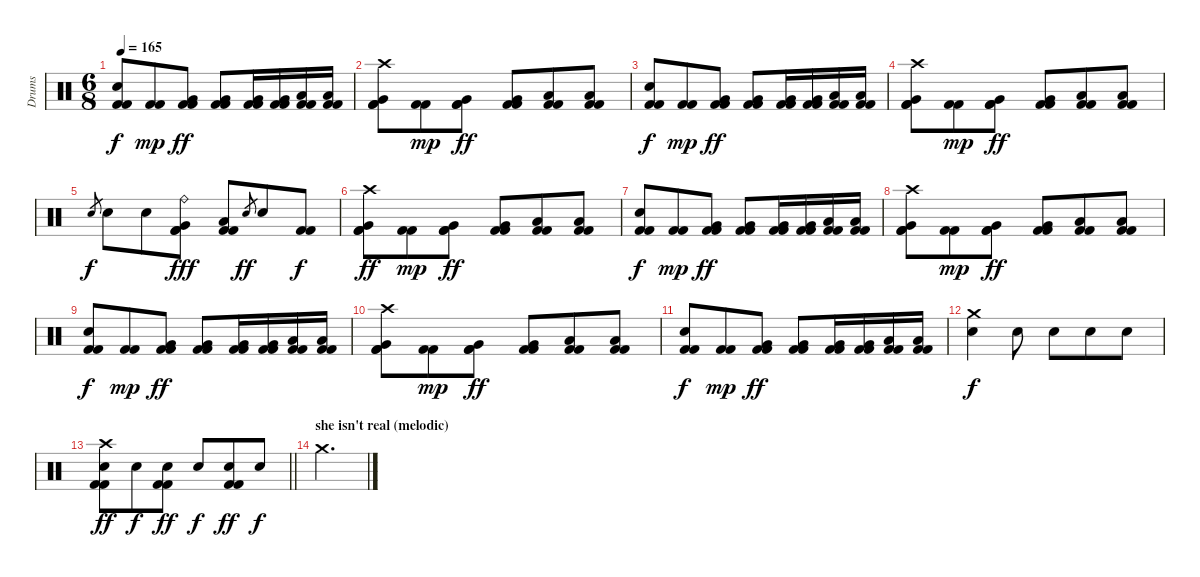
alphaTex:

\track ("Drums" "Drums") {instrument percussion}
\staff {score}
\articulation defaults
\ts (6 8)
\tempo 165
\clef neutral
\ks c
("Electric Snare (hit)" "Kick (hit) 2" "Kick (hit) 2").8{dy f} ("Kick (hit) 2" "Kick (hit) 2").8{dy mp} ("Very Low Tom (hit)" "Kick (hit) 2" "Kick (hit) 2").8{dy ff} ("Very Low Tom (hit)" "Kick (hit) 2" "Kick (hit) 2").8 ("Very Low Tom (hit)" "Kick (hit) 2" "Kick (hit) 2").16 ("Very Low Tom (hit)" "Kick (hit) 2" "Kick (hit) 2").16 ("Low Floor Tom (hit)" "Kick (hit) 2" "Kick (hit) 2").16 ("Low Floor Tom (hit)" "Kick (hit) 2" "Kick (hit) 2").16 |
("Crash high (hit)" "Very Low Tom (hit)" "Kick (hit) 2" "Kick (hit) 2").8 ("Kick (hit) 2" "Kick (hit) 2").8{dy mp} ("Very Low Tom (hit)" "Kick (hit) 2" "Kick (hit) 2").8{dy ff} ("Very Low Tom (hit)" "Kick (hit) 2" "Kick (hit) 2").8 ("Low Floor Tom (hit)" "Kick (hit) 2" "Kick (hit) 2").8 ("Low Floor Tom (hit)" "Kick (hit) 2" "Kick (hit) 2").8 |
("Electric Snare (hit)" "Kick (hit) 2" "Kick (hit) 2").8{dy f} ("Kick (hit) 2" "Kick (hit) 2").8{dy mp} ("Very Low Tom (hit)" "Kick (hit) 2" "Kick (hit) 2").8{dy ff} ("Very Low Tom (hit)" "Kick (hit) 2" "Kick (hit) 2").8 ("Very Low Tom (hit)" "Kick (hit) 2" "Kick (hit) 2").16 ("Very Low Tom (hit)" "Kick (hit) 2" "Kick (hit) 2").16 ("Low Floor Tom (hit)" "Kick (hit) 2" "Kick (hit) 2").16 ("Low Floor Tom (hit)" "Kick (hit) 2" "Kick (hit) 2").16 |
("Crash high (hit)" "Very Low Tom (hit)" "Kick (hit) 2" "Kick (hit) 2").8 ("Kick (hit) 2" "Kick (hit) 2").8{dy mp} ("Very Low Tom (hit)" "Kick (hit) 2" "Kick (hit) 2").8{dy ff} ("Very Low Tom (hit)" "Kick (hit) 2" "Kick (hit) 2").8 ("Low Floor Tom (hit)" "Kick (hit) 2" "Kick (hit) 2").8 ("Low Floor Tom (hit)" "Kick (hit) 2" "Kick (hit) 2").8 |
"Electric Snare (hit)".8{gr dy f} "Electric Snare (hit)".8 "Electric Snare (hit)".8 ("Ride (bell)" "Very Low Tom (hit)" "Kick (hit) 2" "Kick (hit) 2").8{dy fff} ("Low Floor Tom (hit)" "Kick (hit) 2" "Kick (hit) 2").8 "Electric Snare (hit)".8{gr dy ff} "Electric Snare (hit)".8 ("Kick (hit) 2" "Kick (hit) 2").8{dy f} |
("Crash high (hit)" "Very Low Tom (hit)" "Kick (hit) 2" "Kick (hit) 2").8{dy ff} ("Kick (hit) 2" "Kick (hit) 2").8{dy mp} ("Very Low Tom (hit)" "Kick (hit) 2" "Kick (hit) 2").8{dy ff} ("Very Low Tom (hit)" "Kick (hit) 2" "Kick (hit) 2").8 ("Low Floor Tom (hit)" "Kick (hit) 2" "Kick (hit) 2").8 ("Low Floor Tom (hit)" "Kick (hit) 2" "Kick (hit) 2").8 |
("Electric Snare (hit)" "Kick (hit) 2" "Kick (hit) 2").8{dy f} ("Kick (hit) 2" "Kick (hit) 2").8{dy mp} ("Very Low Tom (hit)" "Kick (hit) 2" "Kick (hit) 2").8{dy ff} ("Very Low Tom (hit)" "Kick (hit) 2" "Kick (hit) 2").8 ("Very Low Tom (hit)" "Kick (hit) 2" "Kick (hit) 2").16 ("Very Low Tom (hit)" "Kick (hit) 2" "Kick (hit) 2").16 ("Low Floor Tom (hit)" "Kick (hit) 2" "Kick (hit) 2").16 ("Low Floor Tom (hit)" "Kick (hit) 2" "Kick (hit) 2").16 |
("Crash high (hit)" "Very Low Tom (hit)" "Kick (hit) 2" "Kick (hit) 2").8 ("Kick (hit) 2" "Kick (hit) 2").8{dy mp} ("Very Low Tom (hit)" "Kick (hit) 2" "Kick (hit) 2").8{dy ff} ("Very Low Tom (hit)" "Kick (hit) 2" "Kick (hit) 2").8 ("Low Floor Tom (hit)" "Kick (hit) 2" "Kick (hit) 2").8 ("Low Floor Tom (hit)" "Kick (hit) 2" "Kick (hit) 2").8 |
("Electric Snare (hit)" "Kick (hit) 2" "Kick (hit) 2").8{dy f} ("Kick (hit) 2" "Kick (hit) 2").8{dy mp} ("Very Low Tom (hit)" "Kick (hit) 2" "Kick (hit) 2").8{dy ff} ("Very Low Tom (hit)" "Kick (hit) 2" "Kick (hit) 2").8 ("Very Low Tom (hit)" "Kick (hit) 2" "Kick (hit) 2").16 ("Very Low Tom (hit)" "Kick (hit) 2" "Kick (hit) 2").16 ("Low Floor Tom (hit)" "Kick (hit) 2" "Kick (hit) 2").16 ("Low Floor Tom (hit)" "Kick (hit) 2" "Kick (hit) 2").16 |
("Crash high (hit)" "Very Low Tom (hit)" "Kick (hit) 2" "Kick (hit) 2").8 ("Kick (hit) 2" "Kick (hit) 2").8{dy mp} ("Very Low Tom (hit)" "Kick (hit) 2" "Kick (hit) 2").8{dy ff} ("Very Low Tom (hit)" "Kick (hit) 2" "Kick (hit) 2").8 ("Low Floor Tom (hit)" "Kick (hit) 2" "Kick (hit) 2").8 ("Low Floor Tom (hit)" "Kick (hit) 2" "Kick (hit) 2").8 |
("Electric Snare (hit)" "Kick (hit) 2" "Kick (hit) 2").8{dy f} ("Kick (hit) 2" "Kick (hit) 2").8{dy mp} ("Very Low Tom (hit)" "Kick (hit) 2" "Kick (hit) 2").8{dy ff} ("Very Low Tom (hit)" "Kick (hit) 2" "Kick (hit) 2").8 ("Very Low Tom (hit)" "Kick (hit) 2" "Kick (hit) 2").16 ("Very Low Tom (hit)" "Kick (hit) 2" "Kick (hit) 2").16 ("Low Floor Tom (hit)" "Kick (hit) 2" "Kick (hit) 2").16 ("Low Floor Tom (hit)" "Kick (hit) 2" "Kick (hit) 2").16 |
("Crash medium (hit)" "Electric Snare (hit)").4{dy f} "Electric Snare (hit)".8 "Electric Snare (hit)".8 "Electric Snare (hit)".8 "Electric Snare (hit)".8 |
\barLineRight lightlight
("Crash high (hit)" "Electric Snare (hit)" "Kick (hit) 2" "Kick (hit) 2").8{dy ff} "Electric Snare (hit)".8{dy f} ("Electric Snare (hit)" "Kick (hit) 2" "Kick (hit) 2").8{dy ff} "Electric Snare (hit)".8{dy f} ("Electric Snare (hit)" "Kick (hit) 2" "Kick (hit) 2").8{dy ff} "Electric Snare (hit)".8{dy f} |
\section ("" "she isn't real (melodic)")
"Crash medium (hit)".2{d}
